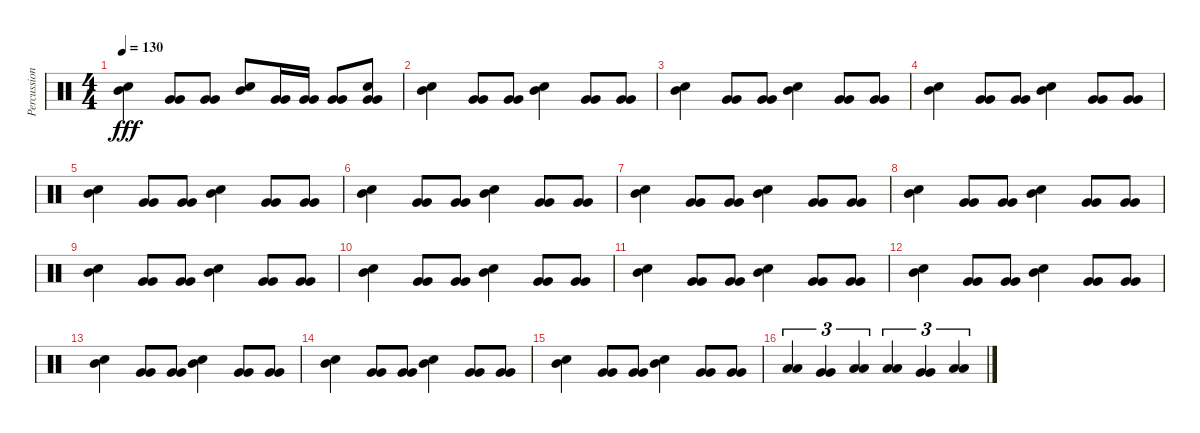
\track ("Percussions" "Percussion") {instrument percussion}
\staff {score}
\articulation defaults
\ts (4 4)
\tempo 130
\clef neutral
\ks c
("Electric Snare (hit)" "Mid Tom (hit)").4{dy fff} ("Very Low Tom (hit)" "Very Low Tom (hit)").8 ("Very Low Tom (hit)" "Very Low Tom (hit)").8 ("Electric Snare (hit)" "Mid Tom (hit)").8 ("Very Low Tom (hit)" "Very Low Tom (hit)").16 ("Very Low Tom (hit)" "Very Low Tom (hit)").16 ("Very Low Tom (hit)" "Very Low Tom (hit)").8 ("Electric Snare (hit)" "Very Low Tom (hit)" "Very Low Tom (hit)").8 |
("Electric Snare (hit)" "Mid Tom (hit)").4 ("Very Low Tom (hit)" "Very Low Tom (hit)").8 ("Very Low Tom (hit)" "Very Low Tom (hit)").8 ("Electric Snare (hit)" "Mid Tom (hit)").4 ("Very Low Tom (hit)" "Very Low Tom (hit)").8 ("Very Low Tom (hit)" "Very Low Tom (hit)").8 |
("Electric Snare (hit)" "Mid Tom (hit)").4 ("Very Low Tom (hit)" "Very Low Tom (hit)").8 ("Very Low Tom (hit)" "Very Low Tom (hit)").8 ("Electric Snare (hit)" "Mid Tom (hit)").4 ("Very Low Tom (hit)" "Very Low Tom (hit)").8 ("Very Low Tom (hit)" "Very Low Tom (hit)").8 |
("Electric Snare (hit)" "Mid Tom (hit)").4 ("Very Low Tom (hit)" "Very Low Tom (hit)").8 ("Very Low Tom (hit)" "Very Low Tom (hit)").8 ("Electric Snare (hit)" "Mid Tom (hit)").4 ("Very Low Tom (hit)" "Very Low Tom (hit)").8 ("Very Low Tom (hit)" "Very Low Tom (hit)").8 |
("Electric Snare (hit)" "Mid Tom (hit)").4 ("Very Low Tom (hit)" "Very Low Tom (hit)").8 ("Very Low Tom (hit)" "Very Low Tom (hit)").8 ("Electric Snare (hit)" "Mid Tom (hit)").4 ("Very Low Tom (hit)" "Very Low Tom (hit)").8 ("Very Low Tom (hit)" "Very Low Tom (hit)").8 |
("Electric Snare (hit)" "Mid Tom (hit)").4 ("Very Low Tom (hit)" "Very Low Tom (hit)").8 ("Very Low Tom (hit)" "Very Low Tom (hit)").8 ("Electric Snare (hit)" "Mid Tom (hit)").4 ("Very Low Tom (hit)" "Very Low Tom (hit)").8 ("Very Low Tom (hit)" "Very Low Tom (hit)").8 |
("Electric Snare (hit)" "Mid Tom (hit)").4 ("Very Low Tom (hit)" "Very Low Tom (hit)").8 ("Very Low Tom (hit)" "Very Low Tom (hit)").8 ("Electric Snare (hit)" "Mid Tom (hit)").4 ("Very Low Tom (hit)" "Very Low Tom (hit)").8 ("Very Low Tom (hit)" "Very Low Tom (hit)").8 |
("Electric Snare (hit)" "Mid Tom (hit)").4 ("Very Low Tom (hit)" "Very Low Tom (hit)").8 ("Very Low Tom (hit)" "Very Low Tom (hit)").8 ("Electric Snare (hit)" "Mid Tom (hit)").4 ("Very Low Tom (hit)" "Very Low Tom (hit)").8 ("Very Low Tom (hit)" "Very Low Tom (hit)").8 |
("Electric Snare (hit)" "Mid Tom (hit)").4 ("Very Low Tom (hit)" "Very Low Tom (hit)").8 ("Very Low Tom (hit)" "Very Low Tom (hit)").8 ("Electric Snare (hit)" "Mid Tom (hit)").4 ("Very Low Tom (hit)" "Very Low Tom (hit)").8 ("Very Low Tom (hit)" "Very Low Tom (hit)").8 |
("Electric Snare (hit)" "Mid Tom (hit)").4 ("Very Low Tom (hit)" "Very Low Tom (hit)").8 ("Very Low Tom (hit)" "Very Low Tom (hit)").8 ("Electric Snare (hit)" "Mid Tom (hit)").4 ("Very Low Tom (hit)" "Very Low Tom (hit)").8 ("Very Low Tom (hit)" "Very Low Tom (hit)").8 |
("Electric Snare (hit)" "Mid Tom (hit)").4 ("Very Low Tom (hit)" "Very Low Tom (hit)").8 ("Very Low Tom (hit)" "Very Low Tom (hit)").8 ("Electric Snare (hit)" "Mid Tom (hit)").4 ("Very Low Tom (hit)" "Very Low Tom (hit)").8 ("Very Low Tom (hit)" "Very Low Tom (hit)").8 |
("Electric Snare (hit)" "Mid Tom (hit)").4 ("Very Low Tom (hit)" "Very Low Tom (hit)").8 ("Very Low Tom (hit)" "Very Low Tom (hit)").8 ("Electric Snare (hit)" "Mid Tom (hit)").4 ("Very Low Tom (hit)" "Very Low Tom (hit)").8 ("Very Low Tom (hit)" "Very Low Tom (hit)").8 |
("Electric Snare (hit)" "Mid Tom (hit)").4 ("Very Low Tom (hit)" "Very Low Tom (hit)").8 ("Very Low Tom (hit)" "Very Low Tom (hit)").8 ("Electric Snare (hit)" "Mid Tom (hit)").4 ("Very Low Tom (hit)" "Very Low Tom (hit)").8 ("Very Low Tom (hit)" "Very Low Tom (hit)").8 |
("Electric Snare (hit)" "Mid Tom (hit)").4 ("Very Low Tom (hit)" "Very Low Tom (hit)").8 ("Very Low Tom (hit)" "Very Low Tom (hit)").8 ("Electric Snare (hit)" "Mid Tom (hit)").4 ("Very Low Tom (hit)" "Very Low Tom (hit)").8 ("Very Low Tom (hit)" "Very Low Tom (hit)").8 |
("Electric Snare (hit)" "Mid Tom (hit)").4 ("Very Low Tom (hit)" "Very Low Tom (hit)").8 ("Very Low Tom (hit)" "Very Low Tom (hit)").8 ("Electric Snare (hit)" "Mid Tom (hit)").4 ("Very Low Tom (hit)" "Very Low Tom (hit)").8 ("Very Low Tom (hit)" "Very Low Tom (hit)").8 |
("Low Floor Tom (hit)" "Low Floor Tom (hit)").4{tu (3 2)} ("Very Low Tom (hit)" "Very Low Tom (hit)").4{tu (3 2)} ("Low Tom (hit)" "Low Tom (hit)").4{tu (3 2)} ("Low Floor Tom (hit)" "Low Floor Tom (hit)").4{tu (3 2)} ("Very Low Tom (hit)" "Very Low Tom (hit)").4{tu (3 2)} ("Low Tom (hit)" "Low Tom (hit)").4{tu (3 2)}
